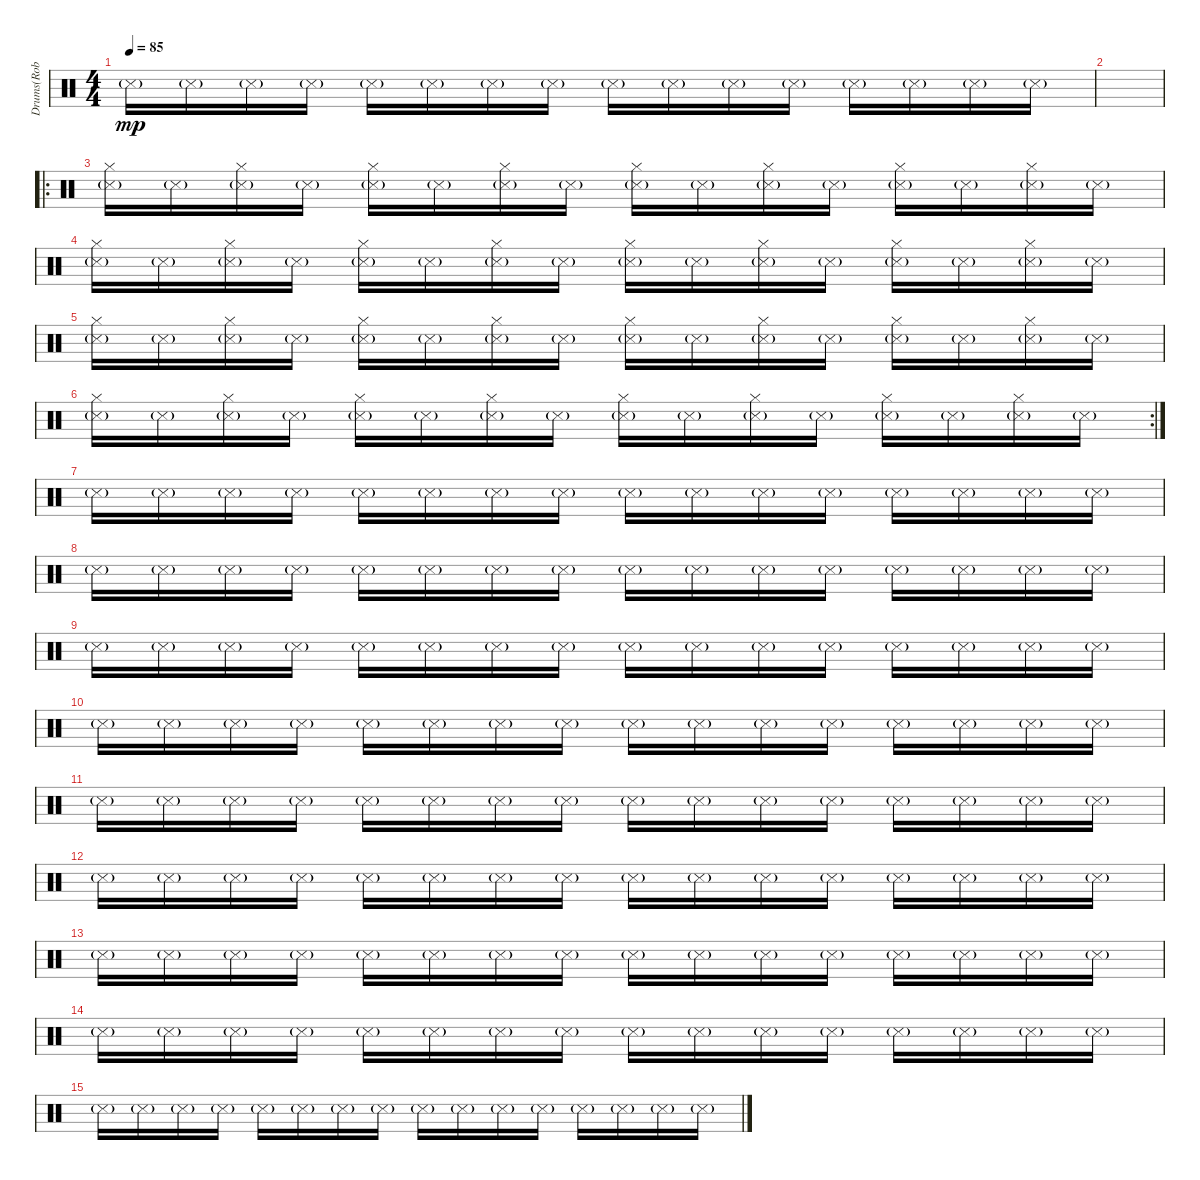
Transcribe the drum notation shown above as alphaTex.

\track ("Drums(Rob Bourdon)(Left hand)" "Drums(Rob ") {instrument percussion}
\staff {score}
\articulation defaults
\ts (4 4)
\tempo 85
\clef neutral
\ks c "Metronome (hit)"{g}.16{dy mp} "Metronome (hit)"{g}.16 "Metronome (hit)"{g}.16 "Metronome (hit)"{g}.16 "Metronome (hit)"{g}.16 "Metronome (hit)"{g}.16 "Metronome (hit)"{g}.16 "Metronome (hit)"{g}.16 "Metronome (hit)"{g}.16 "Metronome (hit)"{g}.16 "Metronome (hit)"{g}.16 "Metronome (hit)"{g}.16 "Metronome (hit)"{g}.16 "Metronome (hit)"{g}.16 "Metronome (hit)"{g}.16 "Metronome (hit)"{g}.16
|
|
\ro
("Metronome (hit)"{g} "Hi-Hat (closed)").16 "Metronome (hit)"{g}.16 ("Metronome (hit)"{g} "Hi-Hat (closed)").16 "Metronome (hit)"{g}.16 ("Metronome (hit)"{g} "Hi-Hat (closed)").16 "Metronome (hit)"{g}.16 ("Metronome (hit)"{g} "Hi-Hat (closed)").16 "Metronome (hit)"{g}.16 ("Metronome (hit)"{g} "Hi-Hat (closed)").16 "Metronome (hit)"{g}.16 ("Metronome (hit)"{g} "Hi-Hat (closed)").16 "Metronome (hit)"{g}.16 ("Metronome (hit)"{g} "Hi-Hat (closed)").16 "Metronome (hit)"{g}.16 ("Metronome (hit)"{g} "Hi-Hat (closed)").16 "Metronome (hit)"{g}.16 |
("Metronome (hit)"{g} "Hi-Hat (closed)").16 "Metronome (hit)"{g}.16 ("Metronome (hit)"{g} "Hi-Hat (closed)").16 "Metronome (hit)"{g}.16 ("Metronome (hit)"{g} "Hi-Hat (closed)").16 "Metronome (hit)"{g}.16 ("Metronome (hit)"{g} "Hi-Hat (closed)").16 "Metronome (hit)"{g}.16 ("Metronome (hit)"{g} "Hi-Hat (closed)").16 "Metronome (hit)"{g}.16 ("Metronome (hit)"{g} "Hi-Hat (closed)").16 "Metronome (hit)"{g}.16 ("Metronome (hit)"{g} "Hi-Hat (closed)").16 "Metronome (hit)"{g}.16 ("Metronome (hit)"{g} "Hi-Hat (closed)").16 "Metronome (hit)"{g}.16 |
("Metronome (hit)"{g} "Hi-Hat (closed)").16 "Metronome (hit)"{g}.16 ("Metronome (hit)"{g} "Hi-Hat (closed)").16 "Metronome (hit)"{g}.16 ("Metronome (hit)"{g} "Hi-Hat (closed)").16 "Metronome (hit)"{g}.16 ("Metronome (hit)"{g} "Hi-Hat (closed)").16 "Metronome (hit)"{g}.16 ("Metronome (hit)"{g} "Hi-Hat (closed)").16 "Metronome (hit)"{g}.16 ("Metronome (hit)"{g} "Hi-Hat (closed)").16 "Metronome (hit)"{g}.16 ("Metronome (hit)"{g} "Hi-Hat (closed)").16 "Metronome (hit)"{g}.16 ("Metronome (hit)"{g} "Hi-Hat (closed)").16 "Metronome (hit)"{g}.16 |
\rc 2
("Metronome (hit)"{g} "Hi-Hat (closed)").16 "Metronome (hit)"{g}.16 ("Metronome (hit)"{g} "Hi-Hat (closed)").16 "Metronome (hit)"{g}.16 ("Metronome (hit)"{g} "Hi-Hat (closed)").16 "Metronome (hit)"{g}.16 ("Metronome (hit)"{g} "Hi-Hat (closed)").16 "Metronome (hit)"{g}.16 ("Metronome (hit)"{g} "Hi-Hat (closed)").16 "Metronome (hit)"{g}.16 ("Metronome (hit)"{g} "Hi-Hat (closed)").16 "Metronome (hit)"{g}.16 ("Metronome (hit)"{g} "Hi-Hat (closed)").16 "Metronome (hit)"{g}.16 ("Metronome (hit)"{g} "Hi-Hat (closed)").16 "Metronome (hit)"{g}.16 |
"Metronome (hit)"{g}.16 "Metronome (hit)"{g}.16 "Metronome (hit)"{g}.16 "Metronome (hit)"{g}.16 "Metronome (hit)"{g}.16 "Metronome (hit)"{g}.16 "Metronome (hit)"{g}.16 "Metronome (hit)"{g}.16 "Metronome (hit)"{g}.16 "Metronome (hit)"{g}.16 "Metronome (hit)"{g}.16 "Metronome (hit)"{g}.16 "Metronome (hit)"{g}.16 "Metronome (hit)"{g}.16 "Metronome (hit)"{g}.16 "Metronome (hit)"{g}.16 |
"Metronome (hit)"{g}.16 "Metronome (hit)"{g}.16 "Metronome (hit)"{g}.16 "Metronome (hit)"{g}.16 "Metronome (hit)"{g}.16 "Metronome (hit)"{g}.16 "Metronome (hit)"{g}.16 "Metronome (hit)"{g}.16 "Metronome (hit)"{g}.16 "Metronome (hit)"{g}.16 "Metronome (hit)"{g}.16 "Metronome (hit)"{g}.16 "Metronome (hit)"{g}.16 "Metronome (hit)"{g}.16 "Metronome (hit)"{g}.16 "Metronome (hit)"{g}.16 |
"Metronome (hit)"{g}.16 "Metronome (hit)"{g}.16 "Metronome (hit)"{g}.16 "Metronome (hit)"{g}.16 "Metronome (hit)"{g}.16 "Metronome (hit)"{g}.16 "Metronome (hit)"{g}.16 "Metronome (hit)"{g}.16 "Metronome (hit)"{g}.16 "Metronome (hit)"{g}.16 "Metronome (hit)"{g}.16 "Metronome (hit)"{g}.16 "Metronome (hit)"{g}.16 "Metronome (hit)"{g}.16 "Metronome (hit)"{g}.16 "Metronome (hit)"{g}.16 |
"Metronome (hit)"{g}.16 "Metronome (hit)"{g}.16 "Metronome (hit)"{g}.16 "Metronome (hit)"{g}.16 "Metronome (hit)"{g}.16 "Metronome (hit)"{g}.16 "Metronome (hit)"{g}.16 "Metronome (hit)"{g}.16 "Metronome (hit)"{g}.16 "Metronome (hit)"{g}.16 "Metronome (hit)"{g}.16 "Metronome (hit)"{g}.16 "Metronome (hit)"{g}.16 "Metronome (hit)"{g}.16 "Metronome (hit)"{g}.16 "Metronome (hit)"{g}.16 |
"Metronome (hit)"{g}.16 "Metronome (hit)"{g}.16 "Metronome (hit)"{g}.16 "Metronome (hit)"{g}.16 "Metronome (hit)"{g}.16 "Metronome (hit)"{g}.16 "Metronome (hit)"{g}.16 "Metronome (hit)"{g}.16 "Metronome (hit)"{g}.16 "Metronome (hit)"{g}.16 "Metronome (hit)"{g}.16 "Metronome (hit)"{g}.16 "Metronome (hit)"{g}.16 "Metronome (hit)"{g}.16 "Metronome (hit)"{g}.16 "Metronome (hit)"{g}.16 |
"Metronome (hit)"{g}.16 "Metronome (hit)"{g}.16 "Metronome (hit)"{g}.16 "Metronome (hit)"{g}.16 "Metronome (hit)"{g}.16 "Metronome (hit)"{g}.16 "Metronome (hit)"{g}.16 "Metronome (hit)"{g}.16 "Metronome (hit)"{g}.16 "Metronome (hit)"{g}.16 "Metronome (hit)"{g}.16 "Metronome (hit)"{g}.16 "Metronome (hit)"{g}.16 "Metronome (hit)"{g}.16 "Metronome (hit)"{g}.16 "Metronome (hit)"{g}.16 |
"Metronome (hit)"{g}.16 "Metronome (hit)"{g}.16 "Metronome (hit)"{g}.16 "Metronome (hit)"{g}.16 "Metronome (hit)"{g}.16 "Metronome (hit)"{g}.16 "Metronome (hit)"{g}.16 "Metronome (hit)"{g}.16 "Metronome (hit)"{g}.16 "Metronome (hit)"{g}.16 "Metronome (hit)"{g}.16 "Metronome (hit)"{g}.16 "Metronome (hit)"{g}.16 "Metronome (hit)"{g}.16 "Metronome (hit)"{g}.16 "Metronome (hit)"{g}.16 |
"Metronome (hit)"{g}.16 "Metronome (hit)"{g}.16 "Metronome (hit)"{g}.16 "Metronome (hit)"{g}.16 "Metronome (hit)"{g}.16 "Metronome (hit)"{g}.16 "Metronome (hit)"{g}.16 "Metronome (hit)"{g}.16 "Metronome (hit)"{g}.16 "Metronome (hit)"{g}.16 "Metronome (hit)"{g}.16 "Metronome (hit)"{g}.16 "Metronome (hit)"{g}.16 "Metronome (hit)"{g}.16 "Metronome (hit)"{g}.16 "Metronome (hit)"{g}.16 |
"Metronome (hit)"{g}.16 "Metronome (hit)"{g}.16 "Metronome (hit)"{g}.16 "Metronome (hit)"{g}.16 "Metronome (hit)"{g}.16 "Metronome (hit)"{g}.16 "Metronome (hit)"{g}.16 "Metronome (hit)"{g}.16 "Metronome (hit)"{g}.16 "Metronome (hit)"{g}.16 "Metronome (hit)"{g}.16 "Metronome (hit)"{g}.16 "Metronome (hit)"{g}.16 "Metronome (hit)"{g}.16 "Metronome (hit)"{g}.16 "Metronome (hit)"{g}.16
